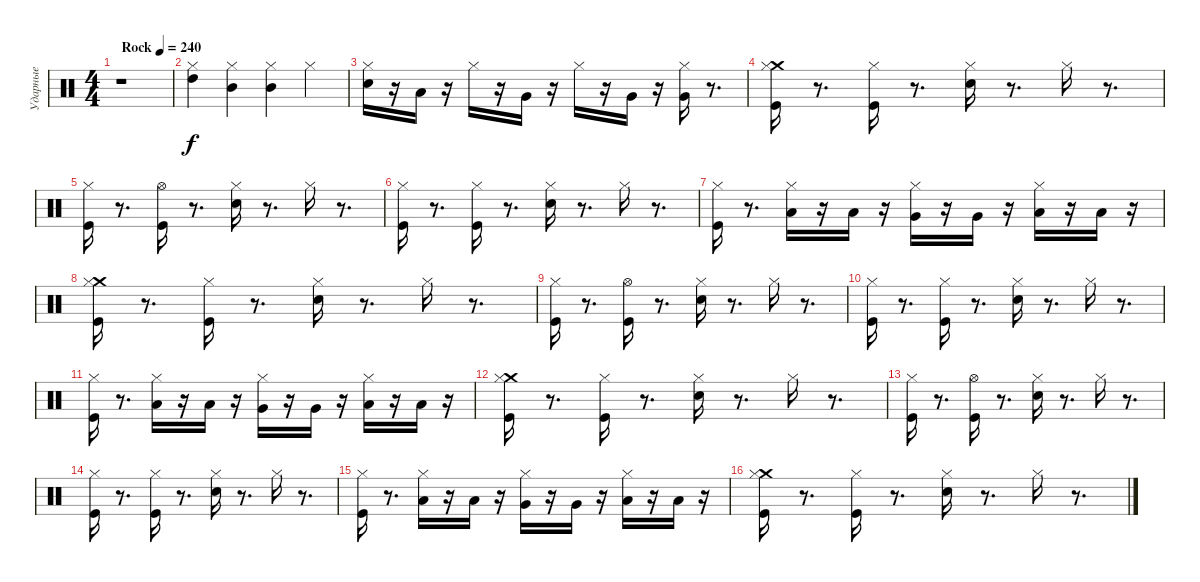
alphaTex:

\track ("Ударные" "Ударные") {instrument percussion}
\staff {score}
\articulation defaults
\ts (4 4)
\tempo (240 "Rock")
\clef neutral
\ks c
r.1{dy f} |
("High Tom (hit)" "Hi-Hat (closed)").4 ("Mid Tom (hit)" "Hi-Hat (closed)").4 ("Mid Tom (hit)" "Hi-Hat (closed)").4 "Hi-Hat (closed)".4 |
("Hi-Hat (closed)" "Electric Snare (hit)").16 r.16 "Low Tom (hit)".16 r.16 "Hi-Hat (closed)".16 r.16 "Very Low Tom (hit)".16 r.16 "Hi-Hat (closed)".16 r.16 "Very Low Tom (hit)".16 r.16 ("Very Low Tom (hit)" "Hi-Hat (closed)").16 r.8{d} |
("Kick (hit)" "Crash medium (hit)" "Hi-Hat (closed)").16 r.8{d} ("Kick (hit)" "Hi-Hat (closed)").16 r.8{d} ("Snare (hit) 2" "Hi-Hat (closed)").16 r.8{d} "Hi-Hat (closed)".16 r.8{d} |
("Kick (hit)" "Hi-Hat (closed)").16 r.8{d} ("Kick (hit)" "Hi-Hat (open)").16 r.8{d} ("Snare (hit) 2" "Hi-Hat (closed)").16 r.8{d} "Hi-Hat (closed)".16 r.8{d} |
("Kick (hit)" "Hi-Hat (closed)").16 r.8{d} ("Kick (hit)" "Hi-Hat (closed)").16 r.8{d} ("Snare (hit) 2" "Hi-Hat (closed)").16 r.8{d} "Hi-Hat (closed)".16 r.8{d} |
("Kick (hit)" "Hi-Hat (closed)").16 r.8{d} ("Low Floor Tom (hit)" "Hi-Hat (closed)").16 r.16 "Low Floor Tom (hit)".16 r.16 ("Very Low Tom (hit)" "Hi-Hat (closed)").16 r.16 "Very Low Tom (hit)".16 r.16 ("Low Tom (hit)" "Hi-Hat (closed)").16 r.16 "Low Tom (hit)".16 r.16 |
("Kick (hit)" "Crash medium (hit)" "Hi-Hat (closed)").16 r.8{d} ("Kick (hit)" "Hi-Hat (closed)").16 r.8{d} ("Snare (hit) 2" "Hi-Hat (closed)").16 r.8{d} "Hi-Hat (closed)".16 r.8{d} |
("Kick (hit)" "Hi-Hat (closed)").16 r.8{d} ("Kick (hit)" "Hi-Hat (open)").16 r.8{d} ("Snare (hit) 2" "Hi-Hat (closed)").16 r.8{d} "Hi-Hat (closed)".16 r.8{d} |
("Kick (hit)" "Hi-Hat (closed)").16 r.8{d} ("Kick (hit)" "Hi-Hat (closed)").16 r.8{d} ("Snare (hit) 2" "Hi-Hat (closed)").16 r.8{d} "Hi-Hat (closed)".16 r.8{d} |
("Kick (hit)" "Hi-Hat (closed)").16 r.8{d} ("Low Floor Tom (hit)" "Hi-Hat (closed)").16 r.16 "Low Floor Tom (hit)".16 r.16 ("Very Low Tom (hit)" "Hi-Hat (closed)").16 r.16 "Very Low Tom (hit)".16 r.16 ("Low Tom (hit)" "Hi-Hat (closed)").16 r.16 "Low Tom (hit)".16 r.16 |
("Kick (hit)" "Crash medium (hit)" "Hi-Hat (closed)").16 r.8{d} ("Kick (hit)" "Hi-Hat (closed)").16 r.8{d} ("Snare (hit) 2" "Hi-Hat (closed)").16 r.8{d} "Hi-Hat (closed)".16 r.8{d} |
("Kick (hit)" "Hi-Hat (closed)").16 r.8{d} ("Kick (hit)" "Hi-Hat (open)").16 r.8{d} ("Snare (hit) 2" "Hi-Hat (closed)").16 r.8{d} "Hi-Hat (closed)".16 r.8{d} |
("Kick (hit)" "Hi-Hat (closed)").16 r.8{d} ("Kick (hit)" "Hi-Hat (closed)").16 r.8{d} ("Snare (hit) 2" "Hi-Hat (closed)").16 r.8{d} "Hi-Hat (closed)".16 r.8{d} |
("Kick (hit)" "Hi-Hat (closed)").16 r.8{d} ("Low Floor Tom (hit)" "Hi-Hat (closed)").16 r.16 "Low Floor Tom (hit)".16 r.16 ("Very Low Tom (hit)" "Hi-Hat (closed)").16 r.16 "Very Low Tom (hit)".16 r.16 ("Low Tom (hit)" "Hi-Hat (closed)").16 r.16 "Low Tom (hit)".16 r.16 |
("Kick (hit)" "Crash medium (hit)" "Hi-Hat (closed)").16 r.8{d} ("Kick (hit)" "Hi-Hat (closed)").16 r.8{d} ("Snare (hit) 2" "Hi-Hat (closed)").16 r.8{d} "Hi-Hat (closed)".16 r.8{d}
